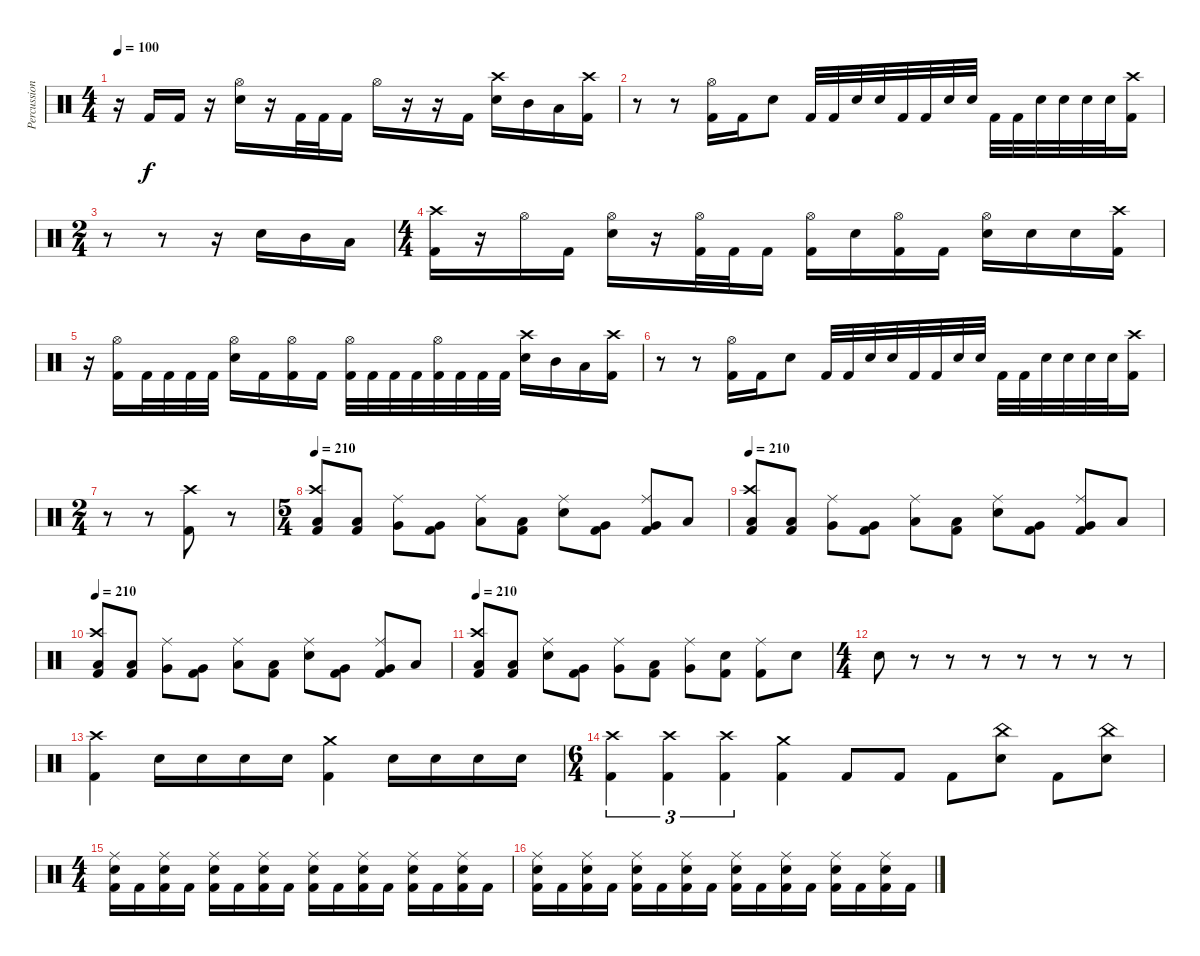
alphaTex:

\track ("Percussion" "Percussion") {instrument percussion}
\staff {score}
\articulation defaults
\ts (4 4)
\tempo 100
\clef neutral
\ks c
r.16{dy f} "Kick (hit) 2".16 "Kick (hit) 2".16 r.16 ("Hi-Hat (open)" "Electric Snare (hit)").16 r.16 "Kick (hit) 2".32 "Kick (hit) 2".32 "Kick (hit) 2".16 "Hi-Hat (open)".16 r.16 r.16 "Kick (hit) 2".16 ("Crash high (hit)" "Electric Snare (hit)").16 "Mid Tom (hit)".16 "Low Tom (hit)".16 ("Crash high (hit)" "Kick (hit) 2").16 |
r.8 r.8 ("Hi-Hat (open)" "Kick (hit) 2").16 "Kick (hit) 2".16 "Electric Snare (hit)".8 "Kick (hit) 2".32 "Kick (hit) 2".32 "Electric Snare (hit)".32 "Electric Snare (hit)".32 "Kick (hit) 2".32 "Kick (hit) 2".32 "Electric Snare (hit)".32 "Electric Snare (hit)".32 "Kick (hit) 2".32 "Kick (hit) 2".32 "Electric Snare (hit)".32 "Electric Snare (hit)".32 "Electric Snare (hit)".32 "Electric Snare (hit)".32 ("Crash high (hit)" "Kick (hit) 2").16 |
\ts (2 4)
r.8 r.8 r.16 "Electric Snare (hit)".16 "Mid Tom (hit)".16 "Low Tom (hit)".16 |
\ts (4 4)
("Crash high (hit)" "Kick (hit) 2").16 r.16 "Hi-Hat (open)".16 "Kick (hit) 2".16 ("Hi-Hat (open)" "Electric Snare (hit)").16 r.16 ("Hi-Hat (open)" "Kick (hit) 2").32 "Kick (hit) 2".32 "Kick (hit) 2".16 ("Hi-Hat (open)" "Kick (hit) 2").16 "Electric Snare (hit)".16 ("Hi-Hat (open)" "Kick (hit) 2").16 "Kick (hit) 2".16 ("Hi-Hat (open)" "Electric Snare (hit)").16 "Electric Snare (hit)".16 "Electric Snare (hit)".16 ("Crash high (hit)" "Kick (hit) 2").16 |
r.16 ("Hi-Hat (open)" "Kick (hit) 2").16 "Kick (hit) 2".32 "Kick (hit) 2".32 "Kick (hit) 2".32 "Kick (hit) 2".32 ("Hi-Hat (open)" "Electric Snare (hit)").16 "Kick (hit) 2".16 ("Hi-Hat (open)" "Kick (hit) 2").16 "Kick (hit) 2".16 ("Hi-Hat (open)" "Kick (hit) 2").32 "Kick (hit) 2".32 "Kick (hit) 2".32 "Kick (hit) 2".32 ("Hi-Hat (open)" "Kick (hit) 2").32 "Kick (hit) 2".32 "Kick (hit) 2".32 "Kick (hit) 2".32 ("Crash high (hit)" "Electric Snare (hit)").16 "Mid Tom (hit)".16 "Low Tom (hit)".16 ("Crash high (hit)" "Kick (hit) 2").16 |
r.8 r.8 ("Hi-Hat (open)" "Kick (hit) 2").16 "Kick (hit) 2".16 "Electric Snare (hit)".8 "Kick (hit) 2".32 "Kick (hit) 2".32 "Electric Snare (hit)".32 "Electric Snare (hit)".32 "Kick (hit) 2".32 "Kick (hit) 2".32 "Electric Snare (hit)".32 "Electric Snare (hit)".32 "Kick (hit) 2".32 "Kick (hit) 2".32 "Electric Snare (hit)".32 "Electric Snare (hit)".32 "Electric Snare (hit)".32 "Electric Snare (hit)".32 ("Crash high (hit)" "Kick (hit) 2").16 |
\ts (2 4)
r.8 r.8 ("Crash high (hit)" "Kick (hit) 2").8 r.8 |
\ts (5 4)
\tempo 210
("Crash high (hit)" "Low Tom (hit)" "Kick (hit) 2").8 ("Low Tom (hit)" "Kick (hit) 2").8 ("Ride (middle)" "Very Low Tom (hit)").8 ("Very Low Tom (hit)" "Kick (hit) 2").8 ("Ride (middle)" "Low Floor Tom (hit)").8 ("Low Floor Tom (hit)" "Kick (hit) 2").8 ("Ride (middle)" "Electric Snare (hit)").8 ("Very Low Tom (hit)" "Kick (hit) 2").8 ("Ride (middle)" "Very Low Tom (hit)" "Kick (hit) 2").8 "Low Floor Tom (hit)".8 |
\tempo 210
("Crash high (hit)" "Low Tom (hit)" "Kick (hit) 2").8 ("Low Tom (hit)" "Kick (hit) 2").8 ("Ride (middle)" "Very Low Tom (hit)").8 ("Very Low Tom (hit)" "Kick (hit) 2").8 ("Ride (middle)" "Low Floor Tom (hit)").8 ("Low Floor Tom (hit)" "Kick (hit) 2").8 ("Ride (middle)" "Electric Snare (hit)").8 ("Very Low Tom (hit)" "Kick (hit) 2").8 ("Ride (middle)" "Very Low Tom (hit)" "Kick (hit) 2").8 "Low Floor Tom (hit)".8 |
\tempo 210
("Crash high (hit)" "Low Tom (hit)" "Kick (hit) 2").8 ("Low Tom (hit)" "Kick (hit) 2").8 ("Ride (middle)" "Very Low Tom (hit)").8 ("Very Low Tom (hit)" "Kick (hit) 2").8 ("Ride (middle)" "Low Floor Tom (hit)").8 ("Low Floor Tom (hit)" "Kick (hit) 2").8 ("Ride (middle)" "Electric Snare (hit)").8 ("Very Low Tom (hit)" "Kick (hit) 2").8 ("Ride (middle)" "Very Low Tom (hit)" "Kick (hit) 2").8 "Low Floor Tom (hit)".8 |
\tempo 210
("Crash high (hit)" "Low Tom (hit)" "Kick (hit) 2").8 ("Low Tom (hit)" "Kick (hit) 2").8 ("Ride (middle)" "Electric Snare (hit)").8 ("Very Low Tom (hit)" "Kick (hit) 2").8 ("Ride (middle)" "Very Low Tom (hit)").8 ("Low Tom (hit)" "Kick (hit) 2").8 ("Ride (middle)" "Very Low Tom (hit)").8 ("Electric Snare (hit)" "Kick (hit) 2").8 ("Ride (middle)" "Kick (hit) 2").8 "Electric Snare (hit)".8 |
\ts (4 4)
"Electric Snare (hit)".8 r.8 r.8 r.8 r.8 r.8 r.8 r.8 |
("Crash high (hit)" "Kick (hit) 2").4 "Electric Snare (hit)".16 "Electric Snare (hit)".16 "Electric Snare (hit)".16 "Electric Snare (hit)".16 ("Crash medium (hit)" "Kick (hit) 2").4 "Electric Snare (hit)".16 "Electric Snare (hit)".16 "Electric Snare (hit)".16 "Electric Snare (hit)".16 |
\ts (6 4)
("Crash high (hit)" "Kick (hit) 2").4{tu (3 2)} ("Crash high (hit)" "Kick (hit) 2").4{tu (3 2)} ("Crash high (hit)" "Kick (hit) 2").4{tu (3 2)} ("Crash medium (hit)" "Kick (hit) 2").4 "Kick (hit) 2".8 "Kick (hit) 2".8 "Kick (hit) 2".8 ("China (hit)" "Electric Snare (hit)").8 "Kick (hit) 2".8 ("China (hit)" "Electric Snare (hit)").8 |
\ts (4 4)
("Ride (middle)" "Electric Snare (hit)" "Kick (hit) 2").16 "Kick (hit) 2".16 ("Ride (middle)" "Electric Snare (hit)" "Kick (hit) 2").16 "Kick (hit) 2".16 ("Ride (middle)" "Electric Snare (hit)" "Kick (hit) 2").16 "Kick (hit) 2".16 ("Ride (middle)" "Electric Snare (hit)" "Kick (hit) 2").16 "Kick (hit) 2".16 ("Ride (middle)" "Electric Snare (hit)" "Kick (hit) 2").16 "Kick (hit) 2".16 ("Ride (middle)" "Electric Snare (hit)" "Kick (hit) 2").16 "Kick (hit) 2".16 ("Ride (middle)" "Electric Snare (hit)" "Kick (hit) 2").16 "Kick (hit) 2".16 ("Ride (middle)" "Electric Snare (hit)" "Kick (hit) 2").16 "Kick (hit) 2".16 |
("Ride (middle)" "Electric Snare (hit)" "Kick (hit) 2").16 "Kick (hit) 2".16 ("Ride (middle)" "Electric Snare (hit)" "Kick (hit) 2").16 "Kick (hit) 2".16 ("Ride (middle)" "Electric Snare (hit)" "Kick (hit) 2").16 "Kick (hit) 2".16 ("Ride (middle)" "Electric Snare (hit)" "Kick (hit) 2").16 "Kick (hit) 2".16 ("Ride (middle)" "Electric Snare (hit)" "Kick (hit) 2").16 "Kick (hit) 2".16 ("Ride (middle)" "Electric Snare (hit)" "Kick (hit) 2").16 "Kick (hit) 2".16 ("Ride (middle)" "Electric Snare (hit)" "Kick (hit) 2").16 "Kick (hit) 2".16 ("Ride (middle)" "Electric Snare (hit)" "Kick (hit) 2").16 "Kick (hit) 2".16
